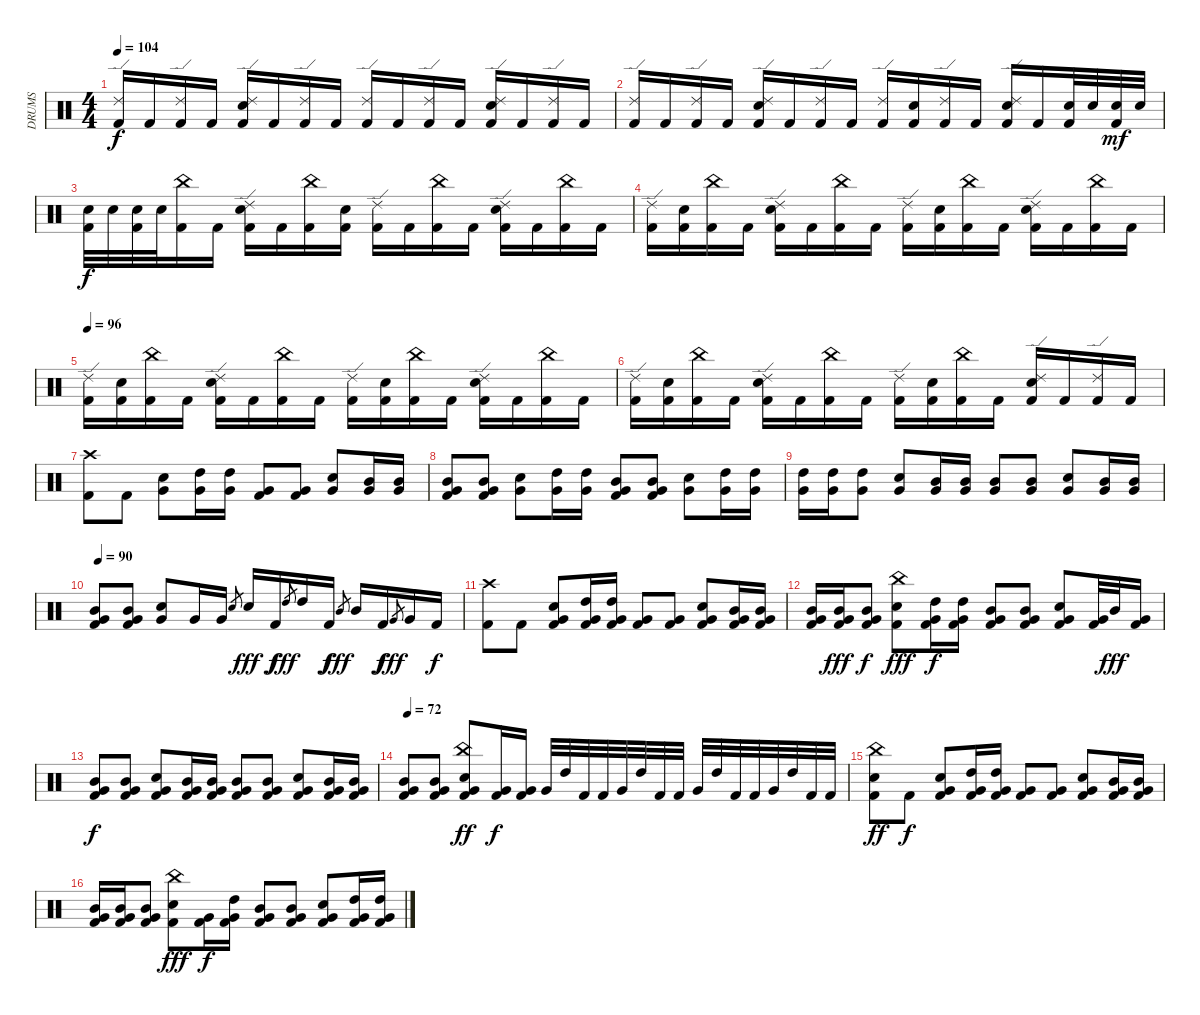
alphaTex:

\track ("DRUMS" "DRUMS") {instrument percussion}
\staff {score}
\articulation defaults
\ts (4 4)
\tempo 104
\clef neutral
\ks c
("Ride (edge) 2" "Kick (hit) 2").16{dy f} "Kick (hit) 2".16 ("Ride (edge) 2" "Kick (hit) 2").16 "Kick (hit) 2".16 ("Ride (edge) 2" "Electric Snare (hit)" "Kick (hit) 2").16 "Kick (hit) 2".16 ("Ride (edge) 2" "Kick (hit) 2").16 "Kick (hit) 2".16 ("Ride (edge) 2" "Kick (hit) 2").16 "Kick (hit) 2".16 ("Ride (edge) 2" "Kick (hit) 2").16 "Kick (hit) 2".16 ("Ride (edge) 2" "Electric Snare (hit)" "Kick (hit) 2").16 "Kick (hit) 2".16 ("Ride (edge) 2" "Kick (hit) 2").16 "Kick (hit) 2".16 |
("Ride (edge) 2" "Kick (hit) 2").16 "Kick (hit) 2".16 ("Ride (edge) 2" "Kick (hit) 2").16 "Kick (hit) 2".16 ("Ride (edge) 2" "Electric Snare (hit)" "Kick (hit) 2").16 "Kick (hit) 2".16 ("Ride (edge) 2" "Kick (hit) 2").16 "Kick (hit) 2".16 ("Ride (edge) 2" "Kick (hit) 2").16 ("Electric Snare (hit)" "Kick (hit) 2").16 ("Ride (edge) 2" "Kick (hit) 2").16 "Kick (hit) 2".16 ("Ride (edge) 2" "Electric Snare (hit)" "Kick (hit) 2").16 "Kick (hit) 2".16 ("Electric Snare (hit)" "Kick (hit) 2").32 "Electric Snare (hit)".32 ("Electric Snare (hit)" "Kick (hit) 2").32{dy mf} "Electric Snare (hit)".32 |
("Electric Snare (hit)" "Kick (hit) 2").32{dy f} "Electric Snare (hit)".32 ("Electric Snare (hit)" "Kick (hit) 2").32 "Electric Snare (hit)".32 ("China (hit)" "Kick (hit) 2").16 "Kick (hit) 2".16 ("Ride (edge) 2" "Electric Snare (hit)" "Kick (hit) 2").16 "Kick (hit) 2".16 ("China (hit)" "Kick (hit) 2").16 ("Electric Snare (hit)" "Kick (hit) 2").16 ("Ride (edge) 2" "Kick (hit) 2").16 "Kick (hit) 2".16 ("China (hit)" "Kick (hit) 2").16 "Kick (hit) 2".16 ("Ride (edge) 2" "Electric Snare (hit)" "Kick (hit) 2").16 "Kick (hit) 2".16 ("China (hit)" "Kick (hit) 2").16 "Kick (hit) 2".16 |
("Ride (edge) 2" "Kick (hit) 2").16 ("Electric Snare (hit)" "Kick (hit) 2").16 ("China (hit)" "Kick (hit) 2").16 "Kick (hit) 2".16 ("Ride (edge) 2" "Electric Snare (hit)" "Kick (hit) 2").16 "Kick (hit) 2".16 ("China (hit)" "Kick (hit) 2").16 "Kick (hit) 2".16 ("Ride (edge) 2" "Kick (hit) 2").16 ("Electric Snare (hit)" "Kick (hit) 2").16 ("China (hit)" "Kick (hit) 2").16 "Kick (hit) 2".16 ("Ride (edge) 2" "Electric Snare (hit)" "Kick (hit) 2").16 "Kick (hit) 2".16 ("China (hit)" "Kick (hit) 2").16 "Kick (hit) 2".16 |
\tempo 96
("Ride (edge) 2" "Kick (hit) 2").16 ("Electric Snare (hit)" "Kick (hit) 2").16 ("China (hit)" "Kick (hit) 2").16 "Kick (hit) 2".16 ("Ride (edge) 2" "Electric Snare (hit)" "Kick (hit) 2").16 "Kick (hit) 2".16 ("China (hit)" "Kick (hit) 2").16 "Kick (hit) 2".16 ("Ride (edge) 2" "Kick (hit) 2").16 ("Electric Snare (hit)" "Kick (hit) 2").16 ("China (hit)" "Kick (hit) 2").16 "Kick (hit) 2".16 ("Ride (edge) 2" "Electric Snare (hit)" "Kick (hit) 2").16 "Kick (hit) 2".16 ("China (hit)" "Kick (hit) 2").16 "Kick (hit) 2".16 |
("Ride (edge) 2" "Kick (hit) 2").16 ("Electric Snare (hit)" "Kick (hit) 2").16 ("China (hit)" "Kick (hit) 2").16 "Kick (hit) 2".16 ("Ride (edge) 2" "Electric Snare (hit)" "Kick (hit) 2").16 "Kick (hit) 2".16 ("China (hit)" "Kick (hit) 2").16 "Kick (hit) 2".16 ("Ride (edge) 2" "Kick (hit) 2").16 ("Electric Snare (hit)" "Kick (hit) 2").16 ("China (hit)" "Kick (hit) 2").16 "Kick (hit) 2".16 ("Ride (edge) 2" "Electric Snare (hit)" "Kick (hit) 2").16 "Kick (hit) 2".16 ("Ride (edge) 2" "Kick (hit) 2").16 "Kick (hit) 2".16 |
("Crash high (hit)" "Kick (hit) 2").8 "Kick (hit) 2".8 ("Electric Snare (hit)" "Very Low Tom (hit)").8 ("High Tom (hit)" "Very Low Tom (hit)").16 ("High Tom (hit)" "Very Low Tom (hit)").16 ("Very Low Tom (hit)" "Kick (hit) 2").8 ("Very Low Tom (hit)" "Kick (hit) 2").8 ("Electric Snare (hit)" "Very Low Tom (hit)").8 ("Mid Tom (hit)" "Very Low Tom (hit)").16 ("Mid Tom (hit)" "Very Low Tom (hit)").16 |
("Mid Tom (hit)" "Very Low Tom (hit)" "Kick (hit) 2").8 ("Mid Tom (hit)" "Very Low Tom (hit)" "Kick (hit) 2").8 ("Electric Snare (hit)" "Very Low Tom (hit)").8 ("High Tom (hit)" "Very Low Tom (hit)").16 ("High Tom (hit)" "Very Low Tom (hit)").16 ("Mid Tom (hit)" "Very Low Tom (hit)" "Kick (hit) 2").8 ("Mid Tom (hit)" "Very Low Tom (hit)" "Kick (hit) 2").8 ("Electric Snare (hit)" "Very Low Tom (hit)").8 ("High Tom (hit)" "Very Low Tom (hit)").16 ("High Tom (hit)" "Very Low Tom (hit)").16 |
("High Tom (hit)" "Very Low Tom (hit)").16 ("High Tom (hit)" "Very Low Tom (hit)").16 ("High Tom (hit)" "Very Low Tom (hit)").8 ("Electric Snare (hit)" "Very Low Tom (hit)").8 ("Mid Tom (hit)" "Very Low Tom (hit)").16 ("Mid Tom (hit)" "Very Low Tom (hit)").16 ("Mid Tom (hit)" "Very Low Tom (hit)").8 ("Mid Tom (hit)" "Very Low Tom (hit)").8 ("Electric Snare (hit)" "Very Low Tom (hit)").8 ("Mid Tom (hit)" "Very Low Tom (hit)").16 ("Mid Tom (hit)" "Very Low Tom (hit)").16 |
\tempo 90
("Mid Tom (hit)" "Very Low Tom (hit)" "Kick (hit) 2").8 ("Mid Tom (hit)" "Very Low Tom (hit)" "Kick (hit) 2").8 ("Electric Snare (hit)" "Very Low Tom (hit)").8 "Very Low Tom (hit)".16 "Very Low Tom (hit)".16 "Electric Snare (hit)"{h}.8{gr} "Electric Snare (hit)".16{dy fff} "Kick (hit) 2".16{dy f} "High Tom (hit)"{h}.8{gr dy fff} "High Tom (hit)".16 "Kick (hit) 2".16{dy f} "Mid Tom (hit)"{h}.8{gr dy fff} "Mid Tom (hit)".16 "Kick (hit) 2".16{dy f} "Very Low Tom (hit)"{h}.8{gr dy fff} "Very Low Tom (hit)".16 "Kick (hit) 2".16{dy f} |
("Crash high (hit)" "Kick (hit) 2").8 "Kick (hit) 2".8 ("Electric Snare (hit)" "Very Low Tom (hit)" "Kick (hit) 2").8 ("High Tom (hit)" "Very Low Tom (hit)" "Kick (hit) 2").16 ("High Tom (hit)" "Very Low Tom (hit)" "Kick (hit) 2").16 ("Very Low Tom (hit)" "Kick (hit) 2").8 ("Very Low Tom (hit)" "Kick (hit) 2").8 ("Electric Snare (hit)" "Very Low Tom (hit)" "Kick (hit) 2").8 ("Mid Tom (hit)" "Very Low Tom (hit)" "Kick (hit) 2").16 ("Mid Tom (hit)" "Very Low Tom (hit)" "Kick (hit) 2").16 |
("Mid Tom (hit)" "Very Low Tom (hit)" "Kick (hit) 2").16 ("Mid Tom (hit)" "Very Low Tom (hit)" "Kick (hit) 2").16{dy fff} ("Mid Tom (hit)" "Very Low Tom (hit)" "Kick (hit) 2").8{dy f} ("China (hit)" "Electric Snare (hit)" "Kick (hit) 2").8{dy fff} ("High Tom (hit)" "Very Low Tom (hit)" "Kick (hit) 2").16{dy f} ("High Tom (hit)" "Very Low Tom (hit)" "Kick (hit) 2").16 ("Mid Tom (hit)" "Very Low Tom (hit)" "Kick (hit) 2").8 ("Mid Tom (hit)" "Very Low Tom (hit)" "Kick (hit) 2").8 ("Electric Snare (hit)" "Very Low Tom (hit)" "Kick (hit) 2").8 ("Very Low Tom (hit)" "Kick (hit) 2").32 "Mid Tom (hit)".32{dy fff} ("Very Low Tom (hit)" "Kick (hit) 2").16 |
("Mid Tom (hit)" "Very Low Tom (hit)" "Kick (hit) 2").8{dy f} ("Mid Tom (hit)" "Very Low Tom (hit)" "Kick (hit) 2").8 ("Electric Snare (hit)" "Very Low Tom (hit)" "Kick (hit) 2").8 ("Mid Tom (hit)" "Very Low Tom (hit)" "Kick (hit) 2").16 ("Mid Tom (hit)" "Very Low Tom (hit)" "Kick (hit) 2").16 ("Mid Tom (hit)" "Very Low Tom (hit)" "Kick (hit) 2").8 ("Mid Tom (hit)" "Very Low Tom (hit)" "Kick (hit) 2").8 ("Electric Snare (hit)" "Very Low Tom (hit)" "Kick (hit) 2").8 ("Mid Tom (hit)" "Very Low Tom (hit)" "Kick (hit) 2").16 ("Mid Tom (hit)" "Very Low Tom (hit)" "Kick (hit) 2").16 |
\tempo 72
("Mid Tom (hit)" "Very Low Tom (hit)" "Kick (hit) 2").8 ("Mid Tom (hit)" "Very Low Tom (hit)" "Kick (hit) 2").8 ("China (hit)" "Electric Snare (hit)" "Very Low Tom (hit)" "Kick (hit) 2").8{dy ff} ("Very Low Tom (hit)" "Kick (hit) 2").16{dy f} ("Very Low Tom (hit)" "Kick (hit) 2").16 "Very Low Tom (hit)".32 "High Tom (hit)".32 "Kick (hit) 2".32 "Kick (hit) 2".32 "Very Low Tom (hit)".32 "High Tom (hit)".32 "Kick (hit) 2".32 "Kick (hit) 2".32 "Very Low Tom (hit)".32 "High Tom (hit)".32 "Kick (hit) 2".32 "Kick (hit) 2".32 "Very Low Tom (hit)".32 "High Tom (hit)".32 "Kick (hit) 2".32 "Kick (hit) 2".32 |
("China (hit)" "Electric Snare (hit)" "Kick (hit) 2").8{dy ff} "Kick (hit) 2".8{dy f} ("Electric Snare (hit)" "Very Low Tom (hit)" "Kick (hit) 2").8 ("High Tom (hit)" "Very Low Tom (hit)" "Kick (hit) 2").16 ("High Tom (hit)" "Very Low Tom (hit)" "Kick (hit) 2").16 ("Very Low Tom (hit)" "Kick (hit) 2").8 ("Very Low Tom (hit)" "Kick (hit) 2").8 ("Electric Snare (hit)" "Very Low Tom (hit)" "Kick (hit) 2").8 ("Mid Tom (hit)" "Very Low Tom (hit)" "Kick (hit) 2").16 ("Mid Tom (hit)" "Very Low Tom (hit)" "Kick (hit) 2").16 |
("Mid Tom (hit)" "Very Low Tom (hit)" "Kick (hit) 2").16 ("Mid Tom (hit)" "Very Low Tom (hit)" "Kick (hit) 2").16 ("Mid Tom (hit)" "Very Low Tom (hit)" "Kick (hit) 2").8 ("China (hit)" "Electric Snare (hit)" "Kick (hit) 2").8{dy fff} ("Very Low Tom (hit)" "Kick (hit) 2").16{dy f} ("High Tom (hit)" "Very Low Tom (hit)" "Kick (hit) 2").16 ("Mid Tom (hit)" "Very Low Tom (hit)" "Kick (hit) 2").8 ("Mid Tom (hit)" "Very Low Tom (hit)" "Kick (hit) 2").8 ("Electric Snare (hit)" "Very Low Tom (hit)" "Kick (hit) 2").8 ("High Tom (hit)" "Very Low Tom (hit)" "Kick (hit) 2").16 ("High Tom (hit)" "Very Low Tom (hit)" "Kick (hit) 2").16
